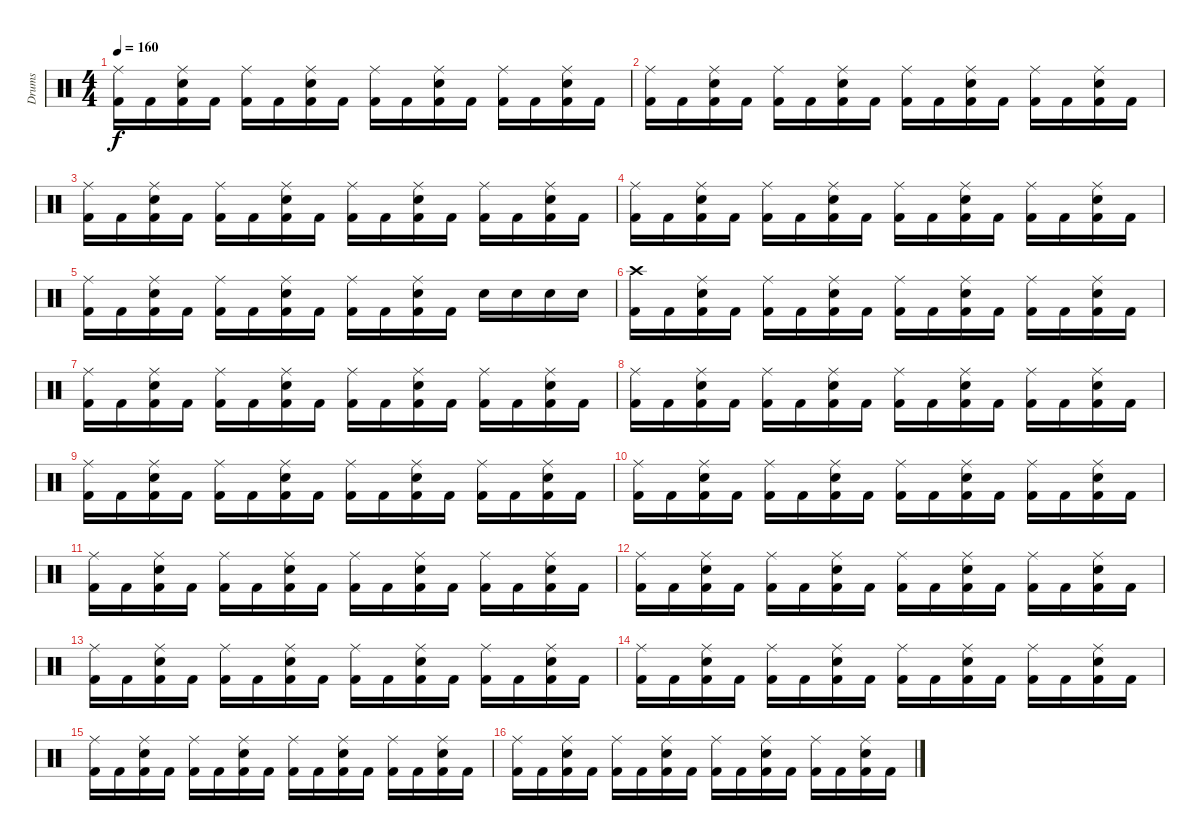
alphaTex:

\track ("Drums" "Drums") {instrument percussion}
\staff {score}
\articulation defaults
\ts (4 4)
\tempo 160
\clef neutral
\ks c
("Ride (middle)" "Kick (hit) 2").16{dy f} "Kick (hit) 2".16 ("Ride (middle)" "Electric Snare (hit)" "Kick (hit) 2").16 "Kick (hit) 2".16 ("Ride (middle)" "Kick (hit) 2").16 "Kick (hit) 2".16 ("Ride (middle)" "Electric Snare (hit)" "Kick (hit) 2").16 "Kick (hit) 2".16 ("Ride (middle)" "Kick (hit) 2").16 "Kick (hit) 2".16 ("Ride (middle)" "Electric Snare (hit)" "Kick (hit) 2").16 "Kick (hit) 2".16 ("Ride (middle)" "Kick (hit) 2").16 "Kick (hit) 2".16 ("Ride (middle)" "Electric Snare (hit)" "Kick (hit) 2").16 "Kick (hit) 2".16 |
("Ride (middle)" "Kick (hit) 2").16 "Kick (hit) 2".16 ("Ride (middle)" "Electric Snare (hit)" "Kick (hit) 2").16 "Kick (hit) 2".16 ("Ride (middle)" "Kick (hit) 2").16 "Kick (hit) 2".16 ("Ride (middle)" "Electric Snare (hit)" "Kick (hit) 2").16 "Kick (hit) 2".16 ("Ride (middle)" "Kick (hit) 2").16 "Kick (hit) 2".16 ("Ride (middle)" "Electric Snare (hit)" "Kick (hit) 2").16 "Kick (hit) 2".16 ("Ride (middle)" "Kick (hit) 2").16 "Kick (hit) 2".16 ("Ride (middle)" "Electric Snare (hit)" "Kick (hit) 2").16 "Kick (hit) 2".16 |
("Ride (middle)" "Kick (hit) 2").16 "Kick (hit) 2".16 ("Ride (middle)" "Electric Snare (hit)" "Kick (hit) 2").16 "Kick (hit) 2".16 ("Ride (middle)" "Kick (hit) 2").16 "Kick (hit) 2".16 ("Ride (middle)" "Electric Snare (hit)" "Kick (hit) 2").16 "Kick (hit) 2".16 ("Ride (middle)" "Kick (hit) 2").16 "Kick (hit) 2".16 ("Ride (middle)" "Electric Snare (hit)" "Kick (hit) 2").16 "Kick (hit) 2".16 ("Ride (middle)" "Kick (hit) 2").16 "Kick (hit) 2".16 ("Ride (middle)" "Electric Snare (hit)" "Kick (hit) 2").16 "Kick (hit) 2".16 |
("Ride (middle)" "Kick (hit) 2").16 "Kick (hit) 2".16 ("Ride (middle)" "Electric Snare (hit)" "Kick (hit) 2").16 "Kick (hit) 2".16 ("Ride (middle)" "Kick (hit) 2").16 "Kick (hit) 2".16 ("Ride (middle)" "Electric Snare (hit)" "Kick (hit) 2").16 "Kick (hit) 2".16 ("Ride (middle)" "Kick (hit) 2").16 "Kick (hit) 2".16 ("Ride (middle)" "Electric Snare (hit)" "Kick (hit) 2").16 "Kick (hit) 2".16 ("Ride (middle)" "Kick (hit) 2").16 "Kick (hit) 2".16 ("Ride (middle)" "Electric Snare (hit)" "Kick (hit) 2").16 "Kick (hit) 2".16 |
("Ride (middle)" "Kick (hit) 2").16 "Kick (hit) 2".16 ("Ride (middle)" "Electric Snare (hit)" "Kick (hit) 2").16 "Kick (hit) 2".16 ("Ride (middle)" "Kick (hit) 2").16 "Kick (hit) 2".16 ("Ride (middle)" "Electric Snare (hit)" "Kick (hit) 2").16 "Kick (hit) 2".16 ("Ride (middle)" "Kick (hit) 2").16 "Kick (hit) 2".16 ("Ride (middle)" "Electric Snare (hit)" "Kick (hit) 2").16 "Kick (hit) 2".16 "Electric Snare (hit)".16 "Electric Snare (hit)".16 "Electric Snare (hit)".16 "Electric Snare (hit)".16 |
("Crash high (hit)" "Kick (hit) 2").16 "Kick (hit) 2".16 ("Ride (middle)" "Electric Snare (hit)" "Kick (hit) 2").16 "Kick (hit) 2".16 ("Ride (middle)" "Kick (hit) 2").16 "Kick (hit) 2".16 ("Ride (middle)" "Electric Snare (hit)" "Kick (hit) 2").16 "Kick (hit) 2".16 ("Ride (middle)" "Kick (hit) 2").16 "Kick (hit) 2".16 ("Ride (middle)" "Electric Snare (hit)" "Kick (hit) 2").16 "Kick (hit) 2".16 ("Ride (middle)" "Kick (hit) 2").16 "Kick (hit) 2".16 ("Ride (middle)" "Electric Snare (hit)" "Kick (hit) 2").16 "Kick (hit) 2".16 |
("Ride (middle)" "Kick (hit) 2").16 "Kick (hit) 2".16 ("Ride (middle)" "Electric Snare (hit)" "Kick (hit) 2").16 "Kick (hit) 2".16 ("Ride (middle)" "Kick (hit) 2").16 "Kick (hit) 2".16 ("Ride (middle)" "Electric Snare (hit)" "Kick (hit) 2").16 "Kick (hit) 2".16 ("Ride (middle)" "Kick (hit) 2").16 "Kick (hit) 2".16 ("Ride (middle)" "Electric Snare (hit)" "Kick (hit) 2").16 "Kick (hit) 2".16 ("Ride (middle)" "Kick (hit) 2").16 "Kick (hit) 2".16 ("Ride (middle)" "Electric Snare (hit)" "Kick (hit) 2").16 "Kick (hit) 2".16 |
("Ride (middle)" "Kick (hit) 2").16 "Kick (hit) 2".16 ("Ride (middle)" "Electric Snare (hit)" "Kick (hit) 2").16 "Kick (hit) 2".16 ("Ride (middle)" "Kick (hit) 2").16 "Kick (hit) 2".16 ("Ride (middle)" "Electric Snare (hit)" "Kick (hit) 2").16 "Kick (hit) 2".16 ("Ride (middle)" "Kick (hit) 2").16 "Kick (hit) 2".16 ("Ride (middle)" "Electric Snare (hit)" "Kick (hit) 2").16 "Kick (hit) 2".16 ("Ride (middle)" "Kick (hit) 2").16 "Kick (hit) 2".16 ("Ride (middle)" "Electric Snare (hit)" "Kick (hit) 2").16 "Kick (hit) 2".16 |
("Ride (middle)" "Kick (hit) 2").16 "Kick (hit) 2".16 ("Ride (middle)" "Electric Snare (hit)" "Kick (hit) 2").16 "Kick (hit) 2".16 ("Ride (middle)" "Kick (hit) 2").16 "Kick (hit) 2".16 ("Ride (middle)" "Electric Snare (hit)" "Kick (hit) 2").16 "Kick (hit) 2".16 ("Ride (middle)" "Kick (hit) 2").16 "Kick (hit) 2".16 ("Ride (middle)" "Electric Snare (hit)" "Kick (hit) 2").16 "Kick (hit) 2".16 ("Ride (middle)" "Kick (hit) 2").16 "Kick (hit) 2".16 ("Ride (middle)" "Electric Snare (hit)" "Kick (hit) 2").16 "Kick (hit) 2".16 |
("Ride (middle)" "Kick (hit) 2").16 "Kick (hit) 2".16 ("Ride (middle)" "Electric Snare (hit)" "Kick (hit) 2").16 "Kick (hit) 2".16 ("Ride (middle)" "Kick (hit) 2").16 "Kick (hit) 2".16 ("Ride (middle)" "Electric Snare (hit)" "Kick (hit) 2").16 "Kick (hit) 2".16 ("Ride (middle)" "Kick (hit) 2").16 "Kick (hit) 2".16 ("Ride (middle)" "Electric Snare (hit)" "Kick (hit) 2").16 "Kick (hit) 2".16 ("Ride (middle)" "Kick (hit) 2").16 "Kick (hit) 2".16 ("Ride (middle)" "Electric Snare (hit)" "Kick (hit) 2").16 "Kick (hit) 2".16 |
("Ride (middle)" "Kick (hit) 2").16 "Kick (hit) 2".16 ("Ride (middle)" "Electric Snare (hit)" "Kick (hit) 2").16 "Kick (hit) 2".16 ("Ride (middle)" "Kick (hit) 2").16 "Kick (hit) 2".16 ("Ride (middle)" "Electric Snare (hit)" "Kick (hit) 2").16 "Kick (hit) 2".16 ("Ride (middle)" "Kick (hit) 2").16 "Kick (hit) 2".16 ("Ride (middle)" "Electric Snare (hit)" "Kick (hit) 2").16 "Kick (hit) 2".16 ("Ride (middle)" "Kick (hit) 2").16 "Kick (hit) 2".16 ("Ride (middle)" "Electric Snare (hit)" "Kick (hit) 2").16 "Kick (hit) 2".16 |
("Ride (middle)" "Kick (hit) 2").16 "Kick (hit) 2".16 ("Ride (middle)" "Electric Snare (hit)" "Kick (hit) 2").16 "Kick (hit) 2".16 ("Ride (middle)" "Kick (hit) 2").16 "Kick (hit) 2".16 ("Ride (middle)" "Electric Snare (hit)" "Kick (hit) 2").16 "Kick (hit) 2".16 ("Ride (middle)" "Kick (hit) 2").16 "Kick (hit) 2".16 ("Ride (middle)" "Electric Snare (hit)" "Kick (hit) 2").16 "Kick (hit) 2".16 ("Ride (middle)" "Kick (hit) 2").16 "Kick (hit) 2".16 ("Ride (middle)" "Electric Snare (hit)" "Kick (hit) 2").16 "Kick (hit) 2".16 |
("Ride (middle)" "Kick (hit) 2").16 "Kick (hit) 2".16 ("Ride (middle)" "Electric Snare (hit)" "Kick (hit) 2").16 "Kick (hit) 2".16 ("Ride (middle)" "Kick (hit) 2").16 "Kick (hit) 2".16 ("Ride (middle)" "Electric Snare (hit)" "Kick (hit) 2").16 "Kick (hit) 2".16 ("Ride (middle)" "Kick (hit) 2").16 "Kick (hit) 2".16 ("Ride (middle)" "Electric Snare (hit)" "Kick (hit) 2").16 "Kick (hit) 2".16 ("Ride (middle)" "Kick (hit) 2").16 "Kick (hit) 2".16 ("Ride (middle)" "Electric Snare (hit)" "Kick (hit) 2").16 "Kick (hit) 2".16 |
("Ride (middle)" "Kick (hit) 2").16 "Kick (hit) 2".16 ("Ride (middle)" "Electric Snare (hit)" "Kick (hit) 2").16 "Kick (hit) 2".16 ("Ride (middle)" "Kick (hit) 2").16 "Kick (hit) 2".16 ("Ride (middle)" "Electric Snare (hit)" "Kick (hit) 2").16 "Kick (hit) 2".16 ("Ride (middle)" "Kick (hit) 2").16 "Kick (hit) 2".16 ("Ride (middle)" "Electric Snare (hit)" "Kick (hit) 2").16 "Kick (hit) 2".16 ("Ride (middle)" "Kick (hit) 2").16 "Kick (hit) 2".16 ("Ride (middle)" "Electric Snare (hit)" "Kick (hit) 2").16 "Kick (hit) 2".16 |
("Ride (middle)" "Kick (hit) 2").16 "Kick (hit) 2".16 ("Ride (middle)" "Electric Snare (hit)" "Kick (hit) 2").16 "Kick (hit) 2".16 ("Ride (middle)" "Kick (hit) 2").16 "Kick (hit) 2".16 ("Ride (middle)" "Electric Snare (hit)" "Kick (hit) 2").16 "Kick (hit) 2".16 ("Ride (middle)" "Kick (hit) 2").16 "Kick (hit) 2".16 ("Ride (middle)" "Electric Snare (hit)" "Kick (hit) 2").16 "Kick (hit) 2".16 ("Ride (middle)" "Kick (hit) 2").16 "Kick (hit) 2".16 ("Ride (middle)" "Electric Snare (hit)" "Kick (hit) 2").16 "Kick (hit) 2".16 |
("Ride (middle)" "Kick (hit) 2").16 "Kick (hit) 2".16 ("Ride (middle)" "Electric Snare (hit)" "Kick (hit) 2").16 "Kick (hit) 2".16 ("Ride (middle)" "Kick (hit) 2").16 "Kick (hit) 2".16 ("Ride (middle)" "Electric Snare (hit)" "Kick (hit) 2").16 "Kick (hit) 2".16 ("Ride (middle)" "Kick (hit) 2").16 "Kick (hit) 2".16 ("Ride (middle)" "Electric Snare (hit)" "Kick (hit) 2").16 "Kick (hit) 2".16 ("Ride (middle)" "Kick (hit) 2").16 "Kick (hit) 2".16 ("Ride (middle)" "Electric Snare (hit)" "Kick (hit) 2").16 "Kick (hit) 2".16
